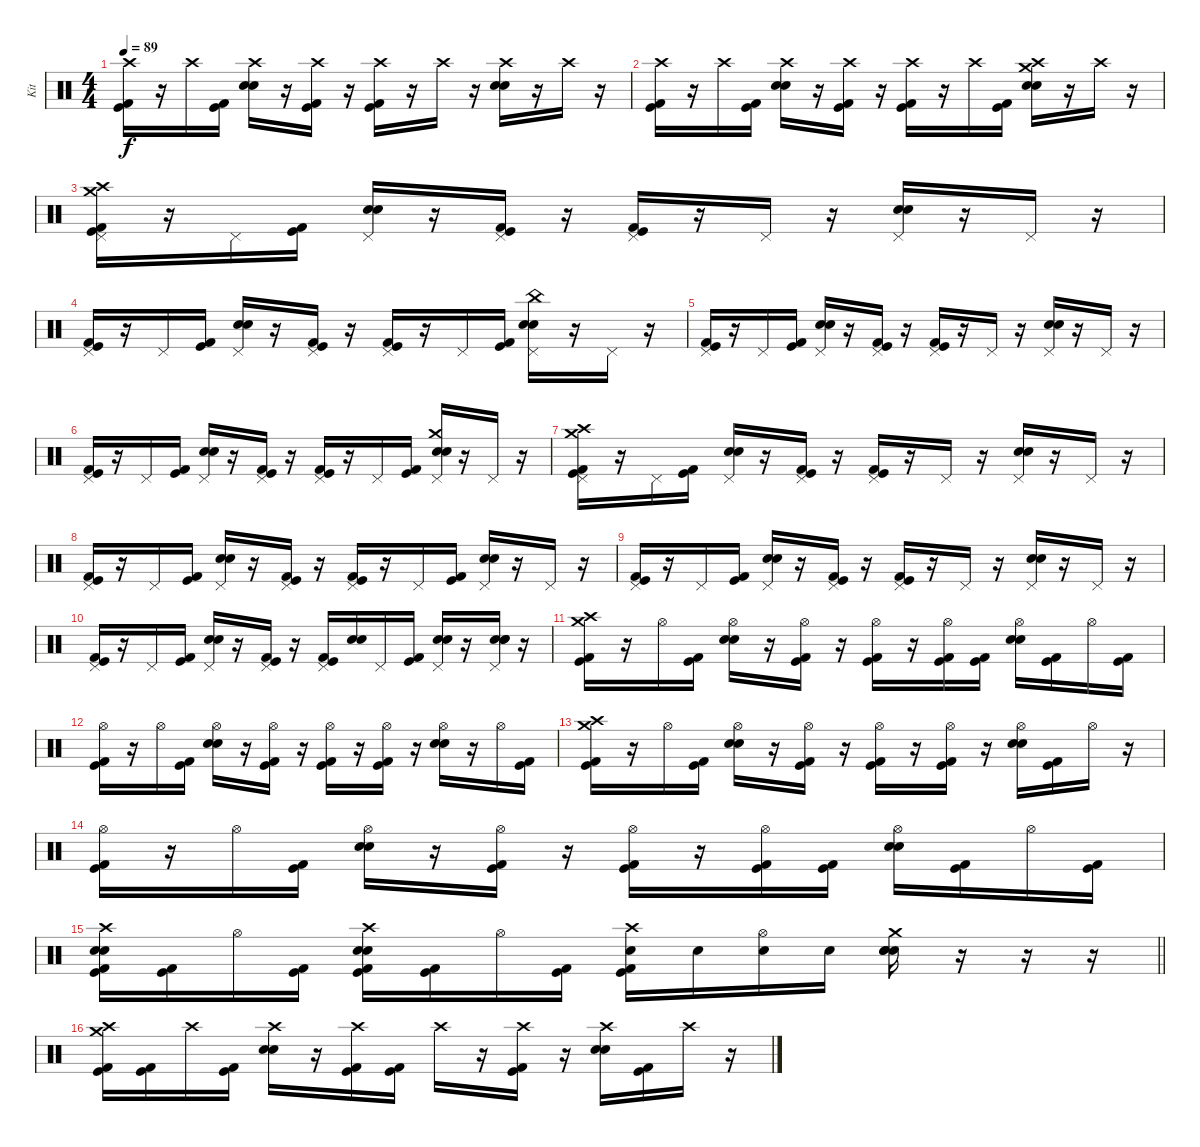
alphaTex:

\track ("Kit" "Kit") {instrument percussion}
\staff {score}
\articulation defaults
\ts (4 4)
\tempo 89
\clef neutral
\ks c
("Crash high (hit)" "Kick (hit) 2" "Kick (hit)").16{dy f} r.16 "Crash high (hit)".16 ("Kick (hit) 2" "Kick (hit)").16 ("Crash high (hit)" "Electric Snare (hit)" "Snare (hit) 2").16 r.16 ("Crash high (hit)" "Kick (hit) 2" "Kick (hit)").16 r.16 ("Crash high (hit)" "Kick (hit) 2" "Kick (hit)").16 r.16 "Crash high (hit)".16 r.16 ("Crash high (hit)" "Electric Snare (hit)" "Snare (hit) 2").16 r.16 "Crash high (hit)".16 r.16 |
("Crash high (hit)" "Kick (hit) 2" "Kick (hit)").16 r.16 "Crash high (hit)".16 ("Kick (hit) 2" "Kick (hit)").16 ("Crash high (hit)" "Electric Snare (hit)" "Snare (hit) 2").16 r.16 ("Crash high (hit)" "Kick (hit) 2" "Kick (hit)").16 r.16 ("Crash high (hit)" "Kick (hit) 2" "Kick (hit)").16 r.16 "Crash high (hit)".16 ("Kick (hit) 2" "Kick (hit)").16 ("Crash high (hit)" "Crash medium (hit)" "Electric Snare (hit)" "Snare (hit) 2").16 r.16 "Crash high (hit)".16 r.16 |
("Pedal Hi-Hat (hit)" "Crash medium (hit)" "Crash high (hit)" "Kick (hit) 2" "Kick (hit)").16 r.16 "Pedal Hi-Hat (hit)".16 ("Kick (hit) 2" "Kick (hit)").16 ("Pedal Hi-Hat (hit)" "Electric Snare (hit)" "Snare (hit) 2").16 r.16 ("Pedal Hi-Hat (hit)" "Kick (hit) 2" "Kick (hit)").16 r.16 ("Pedal Hi-Hat (hit)" "Kick (hit) 2" "Kick (hit)").16 r.16 "Pedal Hi-Hat (hit)".16 r.16 ("Pedal Hi-Hat (hit)" "Electric Snare (hit)" "Snare (hit) 2").16 r.16 "Pedal Hi-Hat (hit)".16 r.16 |
("Pedal Hi-Hat (hit)" "Kick (hit) 2" "Kick (hit)").16 r.16 "Pedal Hi-Hat (hit)".16 ("Kick (hit) 2" "Kick (hit)").16 ("Pedal Hi-Hat (hit)" "Electric Snare (hit)" "Snare (hit) 2").16 r.16 ("Pedal Hi-Hat (hit)" "Kick (hit) 2" "Kick (hit)").16 r.16 ("Pedal Hi-Hat (hit)" "Kick (hit) 2" "Kick (hit)").16 r.16 "Pedal Hi-Hat (hit)".16 ("Kick (hit) 2" "Kick (hit)").16 ("Pedal Hi-Hat (hit)" "China (hit)" "Electric Snare (hit)" "Snare (hit) 2").16 r.16 "Pedal Hi-Hat (hit)".16 r.16 |
("Pedal Hi-Hat (hit)" "Kick (hit) 2" "Kick (hit)").16 r.16 "Pedal Hi-Hat (hit)".16 ("Kick (hit) 2" "Kick (hit)").16 ("Pedal Hi-Hat (hit)" "Electric Snare (hit)" "Snare (hit) 2").16 r.16 ("Pedal Hi-Hat (hit)" "Kick (hit) 2" "Kick (hit)").16 r.16 ("Pedal Hi-Hat (hit)" "Kick (hit) 2" "Kick (hit)").16 r.16 "Pedal Hi-Hat (hit)".16 r.16 ("Pedal Hi-Hat (hit)" "Electric Snare (hit)" "Snare (hit) 2").16 r.16 "Pedal Hi-Hat (hit)".16 r.16 |
("Pedal Hi-Hat (hit)" "Kick (hit) 2" "Kick (hit)").16 r.16 "Pedal Hi-Hat (hit)".16 ("Kick (hit) 2" "Kick (hit)").16 ("Pedal Hi-Hat (hit)" "Electric Snare (hit)" "Snare (hit) 2").16 r.16 ("Pedal Hi-Hat (hit)" "Kick (hit) 2" "Kick (hit)").16 r.16 ("Pedal Hi-Hat (hit)" "Kick (hit) 2" "Kick (hit)").16 r.16 "Pedal Hi-Hat (hit)".16 ("Kick (hit) 2" "Kick (hit)").16 ("Pedal Hi-Hat (hit)" "Crash medium (hit)" "Electric Snare (hit)" "Snare (hit) 2").16 r.16 "Pedal Hi-Hat (hit)".16 r.16 |
("Pedal Hi-Hat (hit)" "Crash medium (hit)" "Crash high (hit)" "Kick (hit) 2" "Kick (hit)").16 r.16 "Pedal Hi-Hat (hit)".16 ("Kick (hit) 2" "Kick (hit)").16 ("Pedal Hi-Hat (hit)" "Electric Snare (hit)" "Snare (hit) 2").16 r.16 ("Pedal Hi-Hat (hit)" "Kick (hit) 2" "Kick (hit)").16 r.16 ("Pedal Hi-Hat (hit)" "Kick (hit) 2" "Kick (hit)").16 r.16 "Pedal Hi-Hat (hit)".16 r.16 ("Pedal Hi-Hat (hit)" "Electric Snare (hit)" "Snare (hit) 2").16 r.16 "Pedal Hi-Hat (hit)".16 r.16 |
("Pedal Hi-Hat (hit)" "Kick (hit) 2" "Kick (hit)").16 r.16 "Pedal Hi-Hat (hit)".16 ("Kick (hit) 2" "Kick (hit)").16 ("Pedal Hi-Hat (hit)" "Electric Snare (hit)" "Snare (hit) 2").16 r.16 ("Pedal Hi-Hat (hit)" "Kick (hit) 2" "Kick (hit)").16 r.16 ("Pedal Hi-Hat (hit)" "Kick (hit) 2" "Kick (hit)").16 r.16 "Pedal Hi-Hat (hit)".16 ("Kick (hit) 2" "Kick (hit)").16 ("Pedal Hi-Hat (hit)" "Electric Snare (hit)" "Snare (hit) 2").16 r.16 "Pedal Hi-Hat (hit)".16 r.16 |
("Pedal Hi-Hat (hit)" "Kick (hit) 2" "Kick (hit)").16 r.16 "Pedal Hi-Hat (hit)".16 ("Kick (hit) 2" "Kick (hit)").16 ("Pedal Hi-Hat (hit)" "Electric Snare (hit)" "Snare (hit) 2").16 r.16 ("Pedal Hi-Hat (hit)" "Kick (hit) 2" "Kick (hit)").16 r.16 ("Pedal Hi-Hat (hit)" "Kick (hit) 2" "Kick (hit)").16 r.16 "Pedal Hi-Hat (hit)".16 r.16 ("Pedal Hi-Hat (hit)" "Electric Snare (hit)" "Snare (hit) 2").16 r.16 "Pedal Hi-Hat (hit)".16 r.16 |
("Pedal Hi-Hat (hit)" "Kick (hit) 2" "Kick (hit)").16 r.16 "Pedal Hi-Hat (hit)".16 ("Kick (hit) 2" "Kick (hit)").16 ("Pedal Hi-Hat (hit)" "Electric Snare (hit)" "Snare (hit) 2").16 r.16 ("Pedal Hi-Hat (hit)" "Kick (hit) 2" "Kick (hit)").16 r.16 ("Pedal Hi-Hat (hit)" "Kick (hit) 2" "Kick (hit)").16 ("Electric Snare (hit)" "Snare (hit) 2").16 "Pedal Hi-Hat (hit)".16 ("Kick (hit) 2" "Kick (hit)").16 ("Pedal Hi-Hat (hit)" "Electric Snare (hit)" "Snare (hit) 2").16 r.16 ("Pedal Hi-Hat (hit)" "Snare (hit) 2" "Electric Snare (hit)" "Snare (hit) 2").16 r.16 |
("Crash high (hit)" "Crash medium (hit)" "Kick (hit) 2" "Kick (hit)").16 r.16 "Hi-Hat (open)".16 ("Kick (hit) 2" "Kick (hit)").16 ("Hi-Hat (open)" "Electric Snare (hit)" "Snare (hit) 2").16 r.16 ("Hi-Hat (open)" "Kick (hit) 2" "Kick (hit)").16 r.16 ("Hi-Hat (open)" "Kick (hit) 2" "Kick (hit)").16 r.16 ("Hi-Hat (open)" "Kick (hit) 2" "Kick (hit)").16 ("Kick (hit) 2" "Kick (hit)").16 ("Hi-Hat (open)" "Electric Snare (hit)" "Snare (hit) 2").16 ("Kick (hit) 2" "Kick (hit)").16 "Hi-Hat (open)".16 ("Kick (hit) 2" "Kick (hit)").16 |
("Hi-Hat (open)" "Kick (hit) 2" "Kick (hit)").16 r.16 "Hi-Hat (open)".16 ("Kick (hit) 2" "Kick (hit)").16 ("Hi-Hat (open)" "Electric Snare (hit)" "Snare (hit) 2").16 r.16 ("Hi-Hat (open)" "Kick (hit) 2" "Kick (hit)").16 r.16 ("Hi-Hat (open)" "Kick (hit) 2" "Kick (hit)").16 r.16 ("Hi-Hat (open)" "Kick (hit) 2" "Kick (hit)").16 r.16 ("Hi-Hat (open)" "Electric Snare (hit)" "Snare (hit) 2").16 r.16 "Hi-Hat (open)".16 ("Kick (hit) 2" "Kick (hit)").16 |
("Crash high (hit)" "Crash medium (hit)" "Kick (hit) 2" "Kick (hit)").16 r.16 "Hi-Hat (open)".16 ("Kick (hit) 2" "Kick (hit)").16 ("Hi-Hat (open)" "Electric Snare (hit)" "Snare (hit) 2").16 r.16 ("Hi-Hat (open)" "Kick (hit) 2" "Kick (hit)").16 r.16 ("Hi-Hat (open)" "Kick (hit) 2" "Kick (hit)").16 r.16 ("Hi-Hat (open)" "Kick (hit) 2" "Kick (hit)").16 r.16 ("Hi-Hat (open)" "Electric Snare (hit)" "Snare (hit) 2").16 ("Kick (hit) 2" "Kick (hit)").16 "Hi-Hat (open)".16 r.16 |
("Hi-Hat (open)" "Kick (hit) 2" "Kick (hit)").16 r.16 "Hi-Hat (open)".16 ("Kick (hit) 2" "Kick (hit)").16 ("Hi-Hat (open)" "Electric Snare (hit)" "Snare (hit) 2").16 r.16 ("Hi-Hat (open)" "Kick (hit) 2" "Kick (hit)").16 r.16 ("Hi-Hat (open)" "Kick (hit) 2" "Kick (hit)").16 r.16 ("Hi-Hat (open)" "Kick (hit) 2" "Kick (hit)").16 ("Kick (hit) 2" "Kick (hit)").16 ("Hi-Hat (open)" "Electric Snare (hit)" "Snare (hit) 2").16 ("Kick (hit) 2" "Kick (hit)").16 "Hi-Hat (open)".16 ("Kick (hit) 2" "Kick (hit)").16 |
\barLineRight lightlight
("Crash high (hit)" "Snare (hit) 2" "Electric Snare (hit)" "Kick (hit) 2" "Kick (hit)").16 ("Kick (hit) 2" "Kick (hit)").16 "Hi-Hat (open)".16 ("Kick (hit) 2" "Kick (hit)").16 ("Crash high (hit)" "Snare (hit) 2" "Electric Snare (hit)" "Kick (hit) 2" "Kick (hit)").16 ("Kick (hit) 2" "Kick (hit)").16 "Hi-Hat (open)".16 ("Kick (hit) 2" "Kick (hit)").16 ("Crash high (hit)" "Electric Snare (hit)" "Kick (hit) 2" "Kick (hit)").16 "Electric Snare (hit)".16 ("Hi-Hat (open)" "Electric Snare (hit)").16 "Electric Snare (hit)".16 ("Crash medium (hit)" "Snare (hit) 2" "Electric Snare (hit)" "Snare (hit) 2").16 r.16 r.16 r.16 |
("Crash high (hit)" "Crash medium (hit)" "Kick (hit) 2" "Kick (hit)").16 ("Kick (hit) 2" "Kick (hit)").16 "Crash high (hit)".16 ("Kick (hit) 2" "Kick (hit)").16 ("Crash high (hit)" "Electric Snare (hit)" "Snare (hit) 2").16 r.16 ("Crash high (hit)" "Kick (hit) 2" "Kick (hit)").16 ("Kick (hit) 2" "Kick (hit)").16 "Crash high (hit)".16 r.16 ("Crash high (hit)" "Kick (hit) 2" "Kick (hit)").16 r.16 ("Crash high (hit)" "Snare (hit) 2" "Electric Snare (hit)").16 ("Kick (hit) 2" "Kick (hit)").16 "Crash high (hit)".16 r.16
